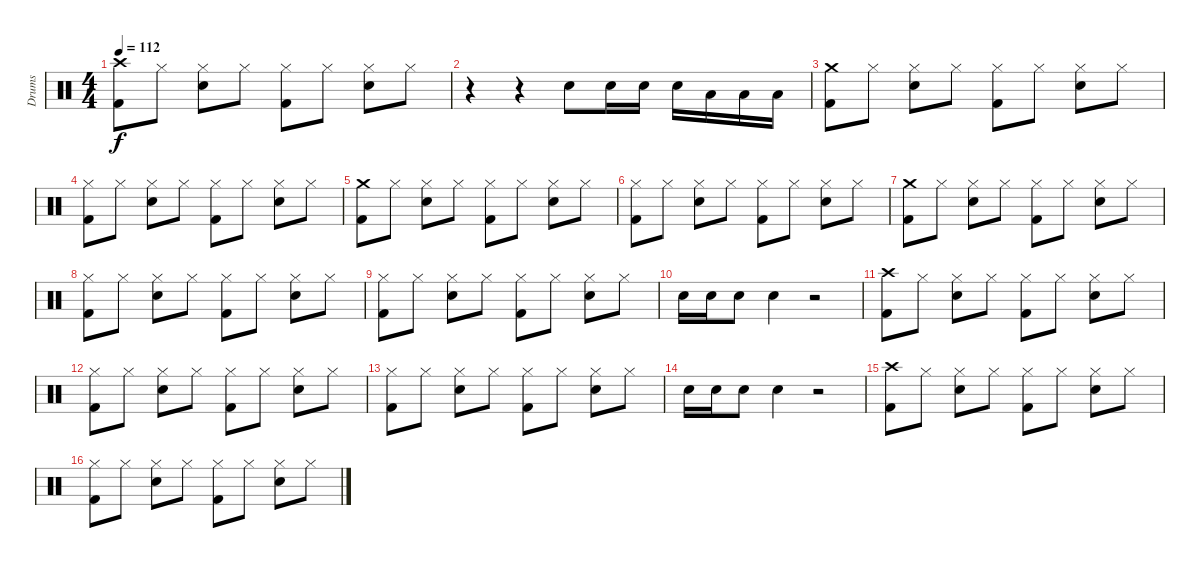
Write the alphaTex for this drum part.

\track ("Drums" "Drums") {instrument percussion}
\staff {score}
\articulation defaults
\ts (4 4)
\tempo 112
\clef neutral
\ks c
("Kick (hit) 2" "Crash high (hit)").8{dy f} "Hi-Hat (closed)".8 ("Snare (hit) 2" "Hi-Hat (closed)").8 "Hi-Hat (closed)".8 ("Kick (hit) 2" "Hi-Hat (closed)").8 "Hi-Hat (closed)".8 ("Snare (hit) 2" "Hi-Hat (closed)").8 "Hi-Hat (closed)".8 |
r.4 r.4 "Snare (hit) 2".8 "Snare (hit) 2".16 "Snare (hit) 2".16 "Snare (hit) 2".16 "Low Tom (hit)".16 "Low Tom (hit)".16 "Low Tom (hit)".16 |
("Kick (hit) 2" "Crash medium (hit)").8 "Hi-Hat (closed)".8 ("Snare (hit) 2" "Hi-Hat (closed)").8 "Hi-Hat (closed)".8 ("Kick (hit) 2" "Hi-Hat (closed)").8 "Hi-Hat (closed)".8 ("Snare (hit) 2" "Hi-Hat (closed)").8 "Hi-Hat (closed)".8 |
("Kick (hit) 2" "Hi-Hat (closed)").8 "Hi-Hat (closed)".8 ("Snare (hit) 2" "Hi-Hat (closed)").8 "Hi-Hat (closed)".8 ("Kick (hit) 2" "Hi-Hat (closed)").8 "Hi-Hat (closed)".8 ("Snare (hit) 2" "Hi-Hat (closed)").8 "Hi-Hat (closed)".8 |
("Kick (hit) 2" "Crash medium (hit)").8 "Hi-Hat (closed)".8 ("Snare (hit) 2" "Hi-Hat (closed)").8 "Hi-Hat (closed)".8 ("Kick (hit) 2" "Hi-Hat (closed)").8 "Hi-Hat (closed)".8 ("Snare (hit) 2" "Hi-Hat (closed)").8 "Hi-Hat (closed)".8 |
("Kick (hit) 2" "Hi-Hat (closed)").8 "Hi-Hat (closed)".8 ("Snare (hit) 2" "Hi-Hat (closed)").8 "Hi-Hat (closed)".8 ("Kick (hit) 2" "Hi-Hat (closed)").8 "Hi-Hat (closed)".8 ("Snare (hit) 2" "Hi-Hat (closed)").8 "Hi-Hat (closed)".8 |
("Kick (hit) 2" "Crash medium (hit)").8 "Hi-Hat (closed)".8 ("Snare (hit) 2" "Hi-Hat (closed)").8 "Hi-Hat (closed)".8 ("Kick (hit) 2" "Hi-Hat (closed)").8 "Hi-Hat (closed)".8 ("Snare (hit) 2" "Hi-Hat (closed)").8 "Hi-Hat (closed)".8 |
("Kick (hit) 2" "Hi-Hat (closed)").8 "Hi-Hat (closed)".8 ("Snare (hit) 2" "Hi-Hat (closed)").8 "Hi-Hat (closed)".8 ("Kick (hit) 2" "Hi-Hat (closed)").8 "Hi-Hat (closed)".8 ("Snare (hit) 2" "Hi-Hat (closed)").8 "Hi-Hat (closed)".8 |
("Kick (hit) 2" "Hi-Hat (closed)").8 "Hi-Hat (closed)".8 ("Snare (hit) 2" "Hi-Hat (closed)").8 "Hi-Hat (closed)".8 ("Kick (hit) 2" "Hi-Hat (closed)").8 "Hi-Hat (closed)".8 ("Snare (hit) 2" "Hi-Hat (closed)").8 "Hi-Hat (closed)".8 |
"Snare (hit) 2".16 "Snare (hit) 2".16 "Snare (hit) 2".8 "Snare (hit) 2".4 r.2 |
("Kick (hit) 2" "Crash high (hit)").8 "Hi-Hat (closed)".8 ("Snare (hit) 2" "Hi-Hat (closed)").8 "Hi-Hat (closed)".8 ("Kick (hit) 2" "Hi-Hat (closed)").8 "Hi-Hat (closed)".8 ("Snare (hit) 2" "Hi-Hat (closed)").8 "Hi-Hat (closed)".8 |
("Kick (hit) 2" "Hi-Hat (closed)").8 "Hi-Hat (closed)".8 ("Snare (hit) 2" "Hi-Hat (closed)").8 "Hi-Hat (closed)".8 ("Kick (hit) 2" "Hi-Hat (closed)").8 "Hi-Hat (closed)".8 ("Snare (hit) 2" "Hi-Hat (closed)").8 "Hi-Hat (closed)".8 |
("Kick (hit) 2" "Hi-Hat (closed)").8 "Hi-Hat (closed)".8 ("Snare (hit) 2" "Hi-Hat (closed)").8 "Hi-Hat (closed)".8 ("Kick (hit) 2" "Hi-Hat (closed)").8 "Hi-Hat (closed)".8 ("Snare (hit) 2" "Hi-Hat (closed)").8 "Hi-Hat (closed)".8 |
"Snare (hit) 2".16 "Snare (hit) 2".16 "Snare (hit) 2".8 "Snare (hit) 2".4 r.2 |
("Kick (hit) 2" "Crash high (hit)").8 "Hi-Hat (closed)".8 ("Snare (hit) 2" "Hi-Hat (closed)").8 "Hi-Hat (closed)".8 ("Kick (hit) 2" "Hi-Hat (closed)").8 "Hi-Hat (closed)".8 ("Snare (hit) 2" "Hi-Hat (closed)").8 "Hi-Hat (closed)".8 |
("Kick (hit) 2" "Hi-Hat (closed)").8 "Hi-Hat (closed)".8 ("Snare (hit) 2" "Hi-Hat (closed)").8 "Hi-Hat (closed)".8 ("Kick (hit) 2" "Hi-Hat (closed)").8 "Hi-Hat (closed)".8 ("Snare (hit) 2" "Hi-Hat (closed)").8 "Hi-Hat (closed)".8
